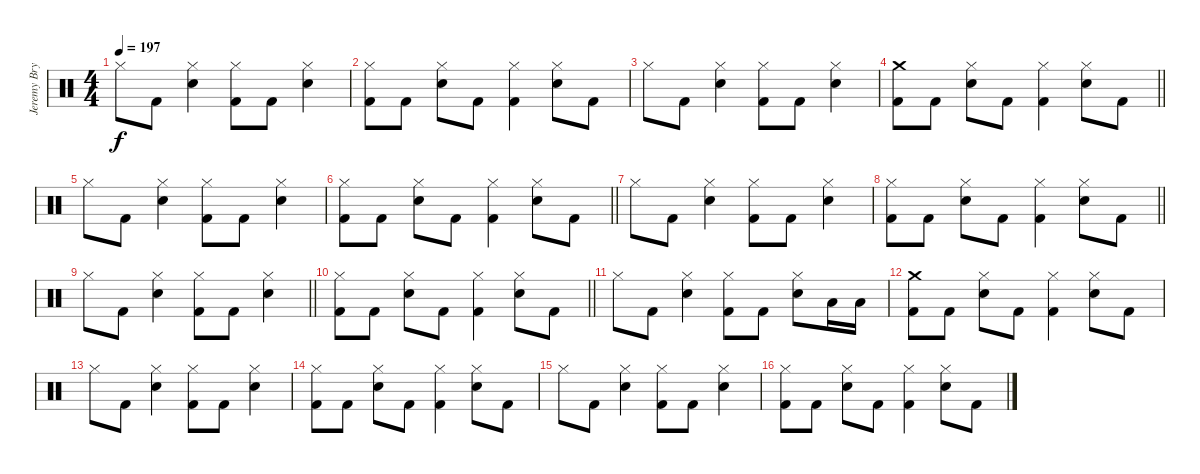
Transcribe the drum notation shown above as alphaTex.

\track ("Jeremy Bryan - Drums" "Jeremy Bry") {instrument percussion}
\staff {score}
\articulation defaults
\ts (4 4)
\tempo 197
\clef neutral
\ks c "Hi-Hat (closed)".8{dy f} "Kick (hit) 2".8
("Hi-Hat (closed)" "Electric Snare (hit)").4 ("Hi-Hat (closed)" "Kick (hit) 2").8 "Kick (hit) 2".8 ("Hi-Hat (closed)" "Electric Snare (hit)").4 |
("Hi-Hat (closed)" "Kick (hit) 2").8 "Kick (hit) 2".8 ("Hi-Hat (closed)" "Electric Snare (hit)").8 "Kick (hit) 2".8 ("Hi-Hat (closed)" "Kick (hit) 2").4 ("Hi-Hat (closed)" "Electric Snare (hit)").8 "Kick (hit) 2".8 |
"Hi-Hat (closed)".8 "Kick (hit) 2".8 ("Hi-Hat (closed)" "Electric Snare (hit)").4 ("Hi-Hat (closed)" "Kick (hit) 2").8 "Kick (hit) 2".8 ("Hi-Hat (closed)" "Electric Snare (hit)").4 |
\barLineRight lightlight
("Crash medium (hit)" "Kick (hit) 2").8 "Kick (hit) 2".8 ("Hi-Hat (closed)" "Electric Snare (hit)").8 "Kick (hit) 2".8 ("Hi-Hat (closed)" "Kick (hit) 2").4 ("Hi-Hat (closed)" "Electric Snare (hit)").8 "Kick (hit) 2".8 |
"Hi-Hat (closed)".8 "Kick (hit) 2".8 ("Hi-Hat (closed)" "Electric Snare (hit)").4 ("Hi-Hat (closed)" "Kick (hit) 2").8 "Kick (hit) 2".8 ("Hi-Hat (closed)" "Electric Snare (hit)").4 |
\barLineRight lightlight
("Hi-Hat (closed)" "Kick (hit) 2").8 "Kick (hit) 2".8 ("Hi-Hat (closed)" "Electric Snare (hit)").8 "Kick (hit) 2".8 ("Hi-Hat (closed)" "Kick (hit) 2").4 ("Hi-Hat (closed)" "Electric Snare (hit)").8 "Kick (hit) 2".8 |
"Hi-Hat (closed)".8 "Kick (hit) 2".8 ("Hi-Hat (closed)" "Electric Snare (hit)").4 ("Hi-Hat (closed)" "Kick (hit) 2").8 "Kick (hit) 2".8 ("Hi-Hat (closed)" "Electric Snare (hit)").4 |
\barLineRight lightlight
("Hi-Hat (closed)" "Kick (hit) 2").8 "Kick (hit) 2".8 ("Hi-Hat (closed)" "Electric Snare (hit)").8 "Kick (hit) 2".8 ("Hi-Hat (closed)" "Kick (hit) 2").4 ("Hi-Hat (closed)" "Electric Snare (hit)").8 "Kick (hit) 2".8 |
\barLineRight lightlight "Hi-Hat (closed)".8 "Kick (hit) 2".8
("Hi-Hat (closed)" "Electric Snare (hit)").4 ("Hi-Hat (closed)" "Kick (hit) 2").8 "Kick (hit) 2".8 ("Hi-Hat (closed)" "Electric Snare (hit)").4 |
\barLineRight lightlight
("Hi-Hat (closed)" "Kick (hit) 2").8 "Kick (hit) 2".8 ("Hi-Hat (closed)" "Electric Snare (hit)").8 "Kick (hit) 2".8 ("Hi-Hat (closed)" "Kick (hit) 2").4 ("Hi-Hat (closed)" "Electric Snare (hit)").8 "Kick (hit) 2".8 |
"Hi-Hat (closed)".8 "Kick (hit) 2".8 ("Hi-Hat (closed)" "Electric Snare (hit)").4 ("Hi-Hat (closed)" "Kick (hit) 2").8 "Kick (hit) 2".8 ("Hi-Hat (closed)" "Electric Snare (hit)").8 "Low Tom (hit)".16 "Low Tom (hit)".16 |
("Crash medium (hit)" "Kick (hit) 2").8 "Kick (hit) 2".8 ("Hi-Hat (closed)" "Electric Snare (hit)").8 "Kick (hit) 2".8 ("Hi-Hat (closed)" "Kick (hit) 2").4 ("Hi-Hat (closed)" "Electric Snare (hit)").8 "Kick (hit) 2".8 |
"Hi-Hat (closed)".8 "Kick (hit) 2".8 ("Hi-Hat (closed)" "Electric Snare (hit)").4 ("Hi-Hat (closed)" "Kick (hit) 2").8 "Kick (hit) 2".8 ("Hi-Hat (closed)" "Electric Snare (hit)").4 |
("Hi-Hat (closed)" "Kick (hit) 2").8 "Kick (hit) 2".8 ("Hi-Hat (closed)" "Electric Snare (hit)").8 "Kick (hit) 2".8 ("Hi-Hat (closed)" "Kick (hit) 2").4 ("Hi-Hat (closed)" "Electric Snare (hit)").8 "Kick (hit) 2".8 |
"Hi-Hat (closed)".8 "Kick (hit) 2".8 ("Hi-Hat (closed)" "Electric Snare (hit)").4 ("Hi-Hat (closed)" "Kick (hit) 2").8 "Kick (hit) 2".8 ("Hi-Hat (closed)" "Electric Snare (hit)").4 |
("Hi-Hat (closed)" "Kick (hit) 2").8 "Kick (hit) 2".8 ("Hi-Hat (closed)" "Electric Snare (hit)").8 "Kick (hit) 2".8 ("Hi-Hat (closed)" "Kick (hit) 2").4 ("Hi-Hat (closed)" "Electric Snare (hit)").8 "Kick (hit) 2".8
